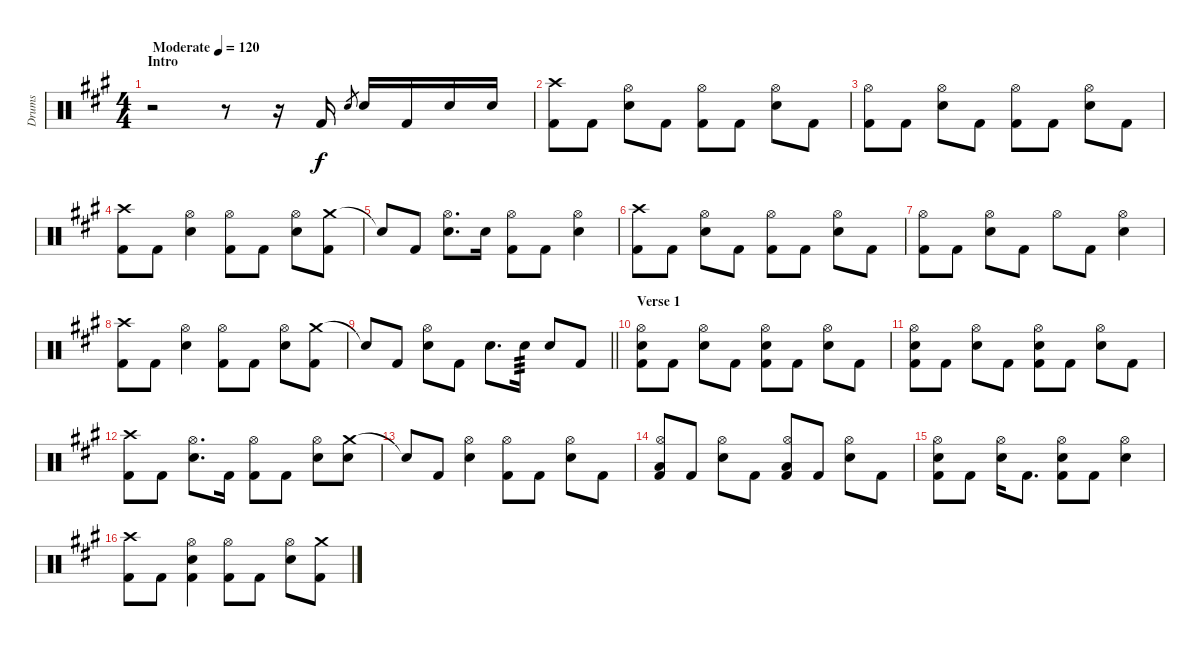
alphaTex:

\track ("Drums" "Drums") {instrument percussion}
\staff {score}
\articulation defaults
\ts (4 4)
\section ("" "Intro")
\tempo (120 "Moderate")
\clef neutral
\ks a
r.2{dy f} r.8 r.16 "Kick (hit) 2".16 "Snare (hit) 2".8{gr} "Snare (hit) 2".16 "Kick (hit) 2".16 "Snare (hit) 2".16 "Snare (hit) 2".16 |
("Crash high (hit)" "Kick (hit) 2").8 "Kick (hit) 2".8 ("Hi-Hat (open)" "Snare (hit) 2").8 "Kick (hit) 2".8 ("Hi-Hat (open)" "Kick (hit) 2").8 "Kick (hit) 2".8 ("Hi-Hat (open)" "Snare (hit) 2").8 "Kick (hit) 2".8 |
("Hi-Hat (open)" "Kick (hit) 2").8 "Kick (hit) 2".8 ("Hi-Hat (open)" "Snare (hit) 2").8 "Kick (hit) 2".8 ("Hi-Hat (open)" "Kick (hit) 2").8 "Kick (hit) 2".8 ("Hi-Hat (open)" "Snare (hit) 2").8 "Kick (hit) 2".8 |
("Crash high (hit)" "Kick (hit) 2").8 "Kick (hit) 2".8 ("Hi-Hat (open)" "Snare (hit) 2").4 ("Hi-Hat (open)" "Kick (hit) 2").8 "Kick (hit) 2".8 ("Hi-Hat (open)" "Snare (hit) 2").8 ("Crash medium (hit)" "Kick (hit) 2").8 |
"Snare (hit)"{t}.8 "Kick (hit) 2".8 ("Hi-Hat (open)" "Snare (hit) 2").8{d} "Snare (hit) 2".16 ("Hi-Hat (open)" "Kick (hit) 2").8 "Kick (hit) 2".8 ("Hi-Hat (open)" "Snare (hit) 2").4 |
("Crash high (hit)" "Kick (hit) 2").8 "Kick (hit) 2".8 ("Hi-Hat (open)" "Snare (hit) 2").8 "Kick (hit) 2".8 ("Hi-Hat (open)" "Kick (hit) 2").8 "Kick (hit) 2".8 ("Hi-Hat (open)" "Snare (hit) 2").8 "Kick (hit) 2".8 |
("Hi-Hat (open)" "Kick (hit) 2").8 "Kick (hit) 2".8 ("Hi-Hat (open)" "Snare (hit) 2").8 "Kick (hit) 2".8 "Hi-Hat (open)".8 "Kick (hit) 2".8 ("Hi-Hat (open)" "Snare (hit) 2").4 |
("Crash high (hit)" "Kick (hit) 2").8 "Kick (hit) 2".8 ("Hi-Hat (open)" "Snare (hit) 2").4 ("Hi-Hat (open)" "Kick (hit) 2").8 "Kick (hit) 2".8 ("Hi-Hat (open)" "Snare (hit) 2").8 ("Crash medium (hit)" "Kick (hit) 2").8 |
\barLineRight lightlight "Snare (hit)"{t}.8 "Kick (hit) 2".8
("Hi-Hat (open)" "Snare (hit) 2").8 "Kick (hit) 2".8 "Snare (hit) 2".8{d} "Snare (hit) 2".16{tp 3} "Snare (hit) 2".8 "Kick (hit) 2".8 |
\section ("" "Verse 1")
("Hi-Hat (open)" "Snare (hit) 2" "Kick (hit) 2").8 "Kick (hit) 2".8 ("Hi-Hat (open)" "Snare (hit) 2").8 "Kick (hit) 2".8 ("Hi-Hat (open)" "Snare (hit) 2" "Kick (hit) 2").8 "Kick (hit) 2".8 ("Hi-Hat (open)" "Snare (hit) 2").8 "Kick (hit) 2".8 |
("Hi-Hat (open)" "Snare (hit) 2" "Kick (hit) 2").8 "Kick (hit) 2".8 ("Hi-Hat (open)" "Snare (hit) 2").8 "Kick (hit) 2".8 ("Hi-Hat (open)" "Snare (hit) 2" "Kick (hit) 2").8 "Kick (hit) 2".8 ("Hi-Hat (open)" "Snare (hit) 2").8 "Kick (hit) 2".8 |
("Crash high (hit)" "Kick (hit) 2").8 "Kick (hit) 2".8 ("Hi-Hat (open)" "Snare (hit) 2").8{d} "Kick (hit) 2".16 ("Hi-Hat (open)" "Kick (hit) 2").8 "Kick (hit) 2".8 ("Hi-Hat (open)" "Snare (hit) 2").8 ("Crash medium (hit)" "Snare (hit) 2").8 |
"Snare (hit)"{t}.8 "Kick (hit) 2".8 ("Hi-Hat (open)" "Snare (hit) 2").4 ("Hi-Hat (open)" "Kick (hit) 2").8 "Kick (hit) 2".8 ("Hi-Hat (open)" "Snare (hit) 2").8 "Kick (hit) 2".8 |
("Hi-Hat (open)" "Low Tom (hit)" "Kick (hit) 2").8 "Kick (hit) 2".8 ("Hi-Hat (open)" "Snare (hit) 2").8 "Kick (hit) 2".8 ("Hi-Hat (open)" "Low Tom (hit)" "Kick (hit) 2").8 "Kick (hit) 2".8 ("Hi-Hat (open)" "Snare (hit) 2").8 "Kick (hit) 2".8 |
("Hi-Hat (open)" "Snare (hit) 2" "Kick (hit) 2").8 "Kick (hit) 2".8 ("Hi-Hat (open)" "Snare (hit) 2").16 "Kick (hit) 2".8{d} ("Hi-Hat (open)" "Snare (hit) 2" "Kick (hit) 2").8 "Kick (hit) 2".8 ("Hi-Hat (open)" "Snare (hit) 2").4 |
("Crash high (hit)" "Kick (hit) 2").8 "Kick (hit) 2".8 ("Hi-Hat (open)" "Snare (hit) 2" "Kick (hit) 2").4 ("Hi-Hat (open)" "Kick (hit) 2").8 "Kick (hit) 2".8 ("Hi-Hat (open)" "Snare (hit) 2").8 ("Crash medium (hit)" "Kick (hit) 2").8
